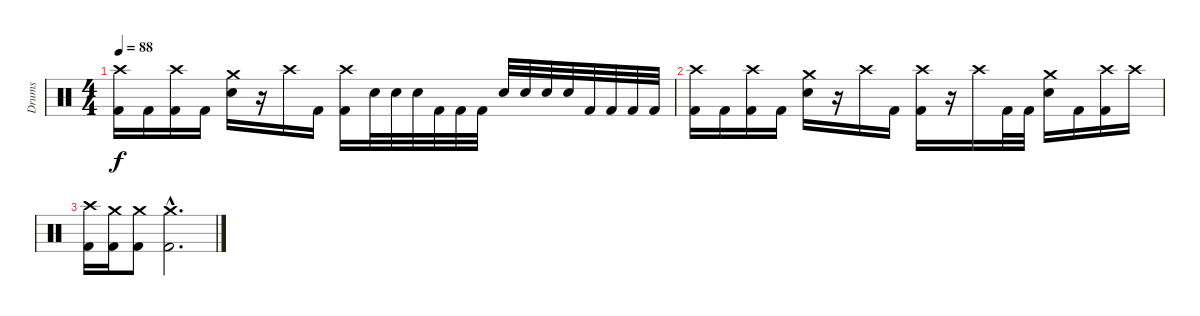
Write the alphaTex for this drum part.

\track ("Drums" "Drums") {instrument percussion}
\staff {score}
\articulation defaults
\ts (4 4)
\tempo 88
\clef neutral
\ks c
("Crash high (hit)" "Kick (hit) 2").16{dy f} "Kick (hit) 2".16 ("Crash high (hit)" "Kick (hit) 2").16 "Kick (hit) 2".16 ("Crash medium (hit)" "Electric Snare (hit)").16 r.16 "Crash high (hit)".16 "Kick (hit) 2".16 ("Crash high (hit)" "Kick (hit) 2").16 "Electric Snare (hit)".32 "Electric Snare (hit)".32 "Electric Snare (hit)".32 "Kick (hit) 2".32 "Kick (hit) 2".32 "Kick (hit) 2".32 "Electric Snare (hit)".32 "Electric Snare (hit)".32 "Electric Snare (hit)".32 "Electric Snare (hit)".32 "Kick (hit) 2".32 "Kick (hit) 2".32 "Kick (hit) 2".32 "Kick (hit) 2".32 |
("Crash high (hit)" "Kick (hit) 2").16 "Kick (hit) 2".16 ("Crash high (hit)" "Kick (hit) 2").16 "Kick (hit) 2".16 ("Crash medium (hit)" "Electric Snare (hit)").16 r.16 "Crash high (hit)".16 "Kick (hit) 2".16 ("Crash high (hit)" "Kick (hit) 2").16 r.16 "Crash high (hit)".16 "Kick (hit) 2".32 "Kick (hit) 2".32 ("Crash medium (hit)" "Electric Snare (hit)").16 "Kick (hit) 2".16 ("Crash high (hit)" "Kick (hit) 2").16 "Crash high (hit)".16 |
("Crash high (hit)" "Kick (hit) 2").16 ("Crash medium (hit)" "Kick (hit) 2").16 ("Crash medium (hit)" "Kick (hit) 2").8 ("Crash medium (hit)"{hac} "Kick (hit) 2"{hac}).2{d}
